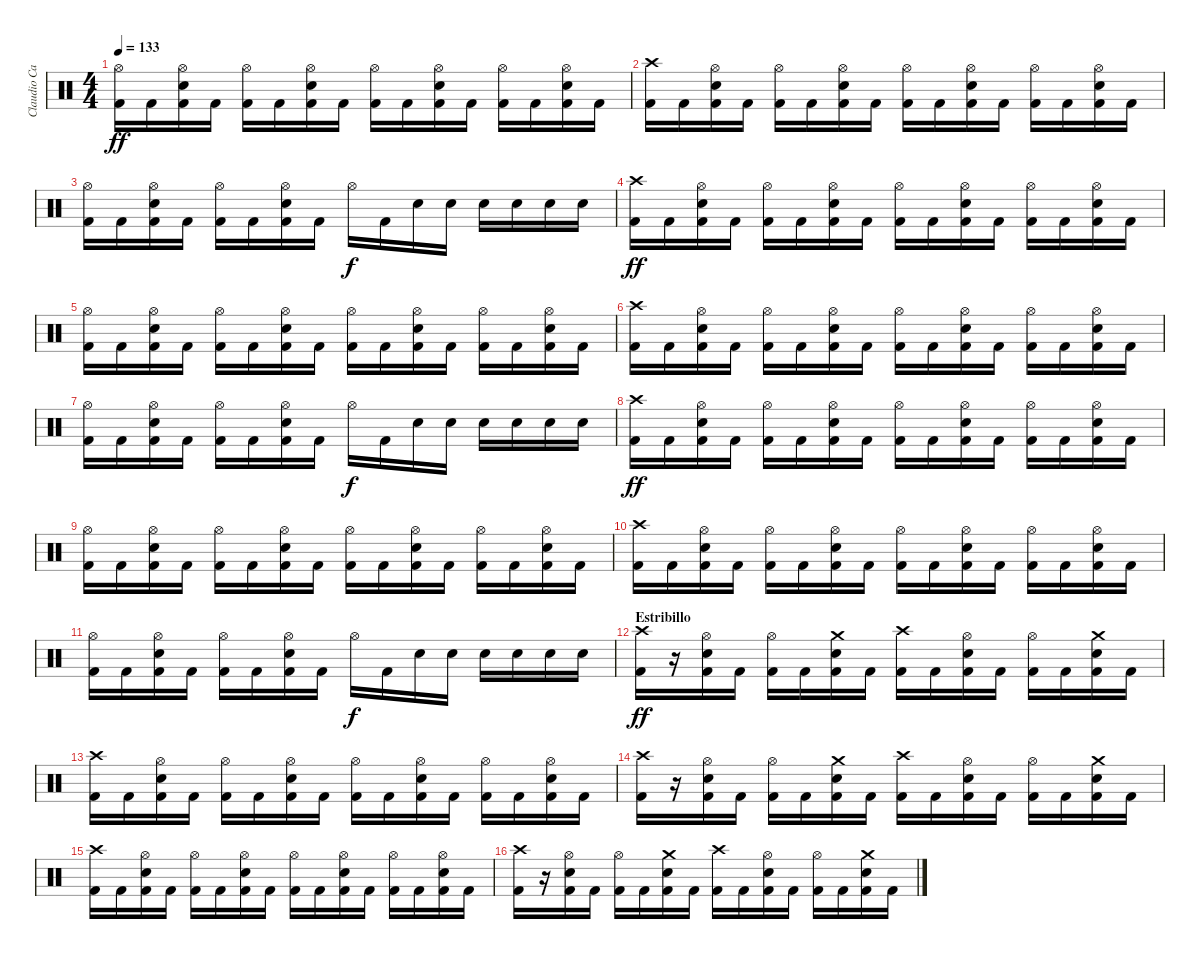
\track ("Claudio Cardaci (bateria)" "Claudio Ca") {instrument percussion}
\staff {score}
\articulation defaults
\ts (4 4)
\tempo 133
\clef neutral
\ks c
("Hi-Hat (open)" "Kick (hit) 2").16{dy ff} "Kick (hit) 2".16 ("Hi-Hat (open)" "Snare (hit) 2" "Kick (hit) 2").16 "Kick (hit) 2".16 ("Hi-Hat (open)" "Kick (hit) 2").16 "Kick (hit) 2".16 ("Hi-Hat (open)" "Snare (hit) 2" "Kick (hit) 2").16 "Kick (hit) 2".16 ("Hi-Hat (open)" "Kick (hit) 2").16 "Kick (hit) 2".16 ("Hi-Hat (open)" "Snare (hit) 2" "Kick (hit) 2").16 "Kick (hit) 2".16 ("Hi-Hat (open)" "Kick (hit) 2").16 "Kick (hit) 2".16 ("Hi-Hat (open)" "Snare (hit) 2" "Kick (hit) 2").16 "Kick (hit) 2".16 |
("Crash high (hit)" "Kick (hit) 2").16 "Kick (hit) 2".16 ("Hi-Hat (open)" "Snare (hit) 2" "Kick (hit) 2").16 "Kick (hit) 2".16 ("Hi-Hat (open)" "Kick (hit) 2").16 "Kick (hit) 2".16 ("Hi-Hat (open)" "Snare (hit) 2" "Kick (hit) 2").16 "Kick (hit) 2".16 ("Hi-Hat (open)" "Kick (hit) 2").16 "Kick (hit) 2".16 ("Hi-Hat (open)" "Snare (hit) 2" "Kick (hit) 2").16 "Kick (hit) 2".16 ("Hi-Hat (open)" "Kick (hit) 2").16 "Kick (hit) 2".16 ("Hi-Hat (open)" "Snare (hit) 2" "Kick (hit) 2").16 "Kick (hit) 2".16 |
("Hi-Hat (open)" "Kick (hit) 2").16 "Kick (hit) 2".16 ("Hi-Hat (open)" "Snare (hit) 2" "Kick (hit) 2").16 "Kick (hit) 2".16 ("Hi-Hat (open)" "Kick (hit) 2").16 "Kick (hit) 2".16 ("Hi-Hat (open)" "Snare (hit) 2" "Kick (hit) 2").16 "Kick (hit) 2".16 "Hi-Hat (open)".16{dy f} "Kick (hit) 2".16 "Snare (hit) 2".16 "Snare (hit) 2".16 "Snare (hit) 2".16 "Snare (hit) 2".16 "Snare (hit) 2".16 "Snare (hit) 2".16 |
("Crash high (hit)" "Kick (hit) 2").16{dy ff} "Kick (hit) 2".16 ("Hi-Hat (open)" "Snare (hit) 2" "Kick (hit) 2").16 "Kick (hit) 2".16 ("Hi-Hat (open)" "Kick (hit) 2").16 "Kick (hit) 2".16 ("Hi-Hat (open)" "Snare (hit) 2" "Kick (hit) 2").16 "Kick (hit) 2".16 ("Hi-Hat (open)" "Kick (hit) 2").16 "Kick (hit) 2".16 ("Hi-Hat (open)" "Snare (hit) 2" "Kick (hit) 2").16 "Kick (hit) 2".16 ("Hi-Hat (open)" "Kick (hit) 2").16 "Kick (hit) 2".16 ("Hi-Hat (open)" "Snare (hit) 2" "Kick (hit) 2").16 "Kick (hit) 2".16 |
("Hi-Hat (open)" "Kick (hit) 2").16 "Kick (hit) 2".16 ("Hi-Hat (open)" "Snare (hit) 2" "Kick (hit) 2").16 "Kick (hit) 2".16 ("Hi-Hat (open)" "Kick (hit) 2").16 "Kick (hit) 2".16 ("Hi-Hat (open)" "Snare (hit) 2" "Kick (hit) 2").16 "Kick (hit) 2".16 ("Hi-Hat (open)" "Kick (hit) 2").16 "Kick (hit) 2".16 ("Hi-Hat (open)" "Snare (hit) 2" "Kick (hit) 2").16 "Kick (hit) 2".16 ("Hi-Hat (open)" "Kick (hit) 2").16 "Kick (hit) 2".16 ("Hi-Hat (open)" "Snare (hit) 2" "Kick (hit) 2").16 "Kick (hit) 2".16 |
("Crash high (hit)" "Kick (hit) 2").16 "Kick (hit) 2".16 ("Hi-Hat (open)" "Snare (hit) 2" "Kick (hit) 2").16 "Kick (hit) 2".16 ("Hi-Hat (open)" "Kick (hit) 2").16 "Kick (hit) 2".16 ("Hi-Hat (open)" "Snare (hit) 2" "Kick (hit) 2").16 "Kick (hit) 2".16 ("Hi-Hat (open)" "Kick (hit) 2").16 "Kick (hit) 2".16 ("Hi-Hat (open)" "Snare (hit) 2" "Kick (hit) 2").16 "Kick (hit) 2".16 ("Hi-Hat (open)" "Kick (hit) 2").16 "Kick (hit) 2".16 ("Hi-Hat (open)" "Snare (hit) 2" "Kick (hit) 2").16 "Kick (hit) 2".16 |
("Hi-Hat (open)" "Kick (hit) 2").16 "Kick (hit) 2".16 ("Hi-Hat (open)" "Snare (hit) 2" "Kick (hit) 2").16 "Kick (hit) 2".16 ("Hi-Hat (open)" "Kick (hit) 2").16 "Kick (hit) 2".16 ("Hi-Hat (open)" "Snare (hit) 2" "Kick (hit) 2").16 "Kick (hit) 2".16 "Hi-Hat (open)".16{dy f} "Kick (hit) 2".16 "Snare (hit) 2".16 "Snare (hit) 2".16 "Snare (hit) 2".16 "Snare (hit) 2".16 "Snare (hit) 2".16 "Snare (hit) 2".16 |
("Crash high (hit)" "Kick (hit) 2").16{dy ff} "Kick (hit) 2".16 ("Hi-Hat (open)" "Snare (hit) 2" "Kick (hit) 2").16 "Kick (hit) 2".16 ("Hi-Hat (open)" "Kick (hit) 2").16 "Kick (hit) 2".16 ("Hi-Hat (open)" "Snare (hit) 2" "Kick (hit) 2").16 "Kick (hit) 2".16 ("Hi-Hat (open)" "Kick (hit) 2").16 "Kick (hit) 2".16 ("Hi-Hat (open)" "Snare (hit) 2" "Kick (hit) 2").16 "Kick (hit) 2".16 ("Hi-Hat (open)" "Kick (hit) 2").16 "Kick (hit) 2".16 ("Hi-Hat (open)" "Snare (hit) 2" "Kick (hit) 2").16 "Kick (hit) 2".16 |
("Hi-Hat (open)" "Kick (hit) 2").16 "Kick (hit) 2".16 ("Hi-Hat (open)" "Snare (hit) 2" "Kick (hit) 2").16 "Kick (hit) 2".16 ("Hi-Hat (open)" "Kick (hit) 2").16 "Kick (hit) 2".16 ("Hi-Hat (open)" "Snare (hit) 2" "Kick (hit) 2").16 "Kick (hit) 2".16 ("Hi-Hat (open)" "Kick (hit) 2").16 "Kick (hit) 2".16 ("Hi-Hat (open)" "Snare (hit) 2" "Kick (hit) 2").16 "Kick (hit) 2".16 ("Hi-Hat (open)" "Kick (hit) 2").16 "Kick (hit) 2".16 ("Hi-Hat (open)" "Snare (hit) 2" "Kick (hit) 2").16 "Kick (hit) 2".16 |
("Crash high (hit)" "Kick (hit) 2").16 "Kick (hit) 2".16 ("Hi-Hat (open)" "Snare (hit) 2" "Kick (hit) 2").16 "Kick (hit) 2".16 ("Hi-Hat (open)" "Kick (hit) 2").16 "Kick (hit) 2".16 ("Hi-Hat (open)" "Snare (hit) 2" "Kick (hit) 2").16 "Kick (hit) 2".16 ("Hi-Hat (open)" "Kick (hit) 2").16 "Kick (hit) 2".16 ("Hi-Hat (open)" "Snare (hit) 2" "Kick (hit) 2").16 "Kick (hit) 2".16 ("Hi-Hat (open)" "Kick (hit) 2").16 "Kick (hit) 2".16 ("Hi-Hat (open)" "Snare (hit) 2" "Kick (hit) 2").16 "Kick (hit) 2".16 |
("Hi-Hat (open)" "Kick (hit) 2").16 "Kick (hit) 2".16 ("Hi-Hat (open)" "Snare (hit) 2" "Kick (hit) 2").16 "Kick (hit) 2".16 ("Hi-Hat (open)" "Kick (hit) 2").16 "Kick (hit) 2".16 ("Hi-Hat (open)" "Snare (hit) 2" "Kick (hit) 2").16 "Kick (hit) 2".16 "Hi-Hat (open)".16{dy f} "Kick (hit) 2".16 "Snare (hit) 2".16 "Snare (hit) 2".16 "Snare (hit) 2".16 "Snare (hit) 2".16 "Snare (hit) 2".16 "Snare (hit) 2".16 |
\section ("" "Estribillo")
("Crash high (hit)" "Kick (hit) 2").16{dy ff} r.16 ("Hi-Hat (open)" "Snare (hit) 2" "Kick (hit) 2").16 "Kick (hit) 2".16 ("Hi-Hat (open)" "Kick (hit) 2").16 "Kick (hit) 2".16 ("Crash medium (hit)" "Snare (hit) 2" "Kick (hit) 2").16 "Kick (hit) 2".16 ("Crash high (hit)" "Kick (hit) 2").16 "Kick (hit) 2".16 ("Hi-Hat (open)" "Snare (hit) 2" "Kick (hit) 2").16 "Kick (hit) 2".16 ("Hi-Hat (open)" "Kick (hit) 2").16 "Kick (hit) 2".16 ("Crash medium (hit)" "Snare (hit) 2" "Kick (hit) 2").16 "Kick (hit) 2".16 |
("Crash high (hit)" "Kick (hit) 2").16 "Kick (hit) 2".16 ("Hi-Hat (open)" "Snare (hit) 2" "Kick (hit) 2").16 "Kick (hit) 2".16 ("Hi-Hat (open)" "Kick (hit) 2").16 "Kick (hit) 2".16 ("Hi-Hat (open)" "Snare (hit) 2" "Kick (hit) 2").16 "Kick (hit) 2".16 ("Hi-Hat (open)" "Kick (hit) 2").16 "Kick (hit) 2".16 ("Hi-Hat (open)" "Snare (hit) 2" "Kick (hit) 2").16 "Kick (hit) 2".16 ("Hi-Hat (open)" "Kick (hit) 2").16 "Kick (hit) 2".16 ("Hi-Hat (open)" "Snare (hit) 2" "Kick (hit) 2").16 "Kick (hit) 2".16 |
("Crash high (hit)" "Kick (hit) 2").16 r.16 ("Hi-Hat (open)" "Snare (hit) 2" "Kick (hit) 2").16 "Kick (hit) 2".16 ("Hi-Hat (open)" "Kick (hit) 2").16 "Kick (hit) 2".16 ("Crash medium (hit)" "Snare (hit) 2" "Kick (hit) 2").16 "Kick (hit) 2".16 ("Crash high (hit)" "Kick (hit) 2").16 "Kick (hit) 2".16 ("Hi-Hat (open)" "Snare (hit) 2" "Kick (hit) 2").16 "Kick (hit) 2".16 ("Hi-Hat (open)" "Kick (hit) 2").16 "Kick (hit) 2".16 ("Crash medium (hit)" "Snare (hit) 2" "Kick (hit) 2").16 "Kick (hit) 2".16 |
("Crash high (hit)" "Kick (hit) 2").16 "Kick (hit) 2".16 ("Hi-Hat (open)" "Snare (hit) 2" "Kick (hit) 2").16 "Kick (hit) 2".16 ("Hi-Hat (open)" "Kick (hit) 2").16 "Kick (hit) 2".16 ("Hi-Hat (open)" "Snare (hit) 2" "Kick (hit) 2").16 "Kick (hit) 2".16 ("Hi-Hat (open)" "Kick (hit) 2").16 "Kick (hit) 2".16 ("Hi-Hat (open)" "Snare (hit) 2" "Kick (hit) 2").16 "Kick (hit) 2".16 ("Hi-Hat (open)" "Kick (hit) 2").16 "Kick (hit) 2".16 ("Hi-Hat (open)" "Snare (hit) 2" "Kick (hit) 2").16 "Kick (hit) 2".16 |
("Crash high (hit)" "Kick (hit) 2").16 r.16 ("Hi-Hat (open)" "Snare (hit) 2" "Kick (hit) 2").16 "Kick (hit) 2".16 ("Hi-Hat (open)" "Kick (hit) 2").16 "Kick (hit) 2".16 ("Crash medium (hit)" "Snare (hit) 2" "Kick (hit) 2").16 "Kick (hit) 2".16 ("Crash high (hit)" "Kick (hit) 2").16 "Kick (hit) 2".16 ("Hi-Hat (open)" "Snare (hit) 2" "Kick (hit) 2").16 "Kick (hit) 2".16 ("Hi-Hat (open)" "Kick (hit) 2").16 "Kick (hit) 2".16 ("Crash medium (hit)" "Snare (hit) 2" "Kick (hit) 2").16 "Kick (hit) 2".16
